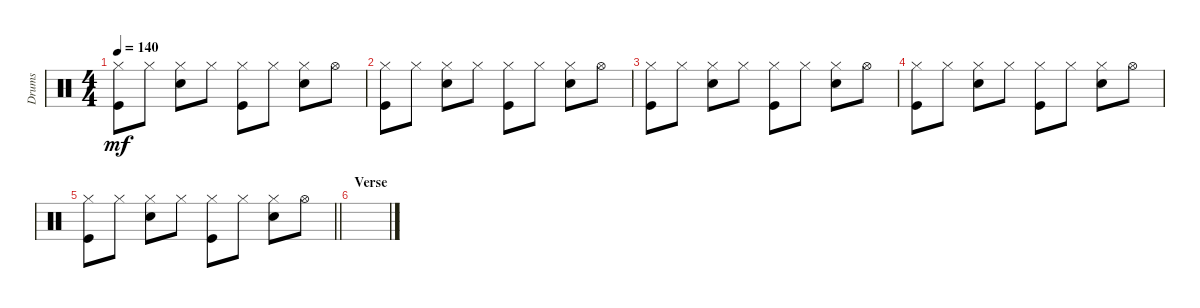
\track ("Drums" "Drums") {instrument percussion bank 255}
\staff {score}
\articulation defaults
\ts (4 4)
\tempo 140
\clef neutral
\ks c
("Hi-Hat (closed)" "Kick (hit)").8{dy mf} "Hi-Hat (closed)".8 ("Hi-Hat (closed)" "Snare (hit) 2").8 "Hi-Hat (closed)".8 ("Hi-Hat (closed)" "Kick (hit)").8 "Hi-Hat (closed)".8 ("Hi-Hat (closed)" "Snare (hit) 2").8 "Hi-Hat (open)".8 |
("Hi-Hat (closed)" "Kick (hit)").8 "Hi-Hat (closed)".8 ("Hi-Hat (closed)" "Snare (hit) 2").8 "Hi-Hat (closed)".8 ("Hi-Hat (closed)" "Kick (hit)").8 "Hi-Hat (closed)".8 ("Hi-Hat (closed)" "Snare (hit) 2").8 "Hi-Hat (open)".8 |
("Hi-Hat (closed)" "Kick (hit)").8 "Hi-Hat (closed)".8 ("Hi-Hat (closed)" "Snare (hit) 2").8 "Hi-Hat (closed)".8 ("Hi-Hat (closed)" "Kick (hit)").8 "Hi-Hat (closed)".8 ("Hi-Hat (closed)" "Snare (hit) 2").8 "Hi-Hat (open)".8 |
("Hi-Hat (closed)" "Kick (hit)").8 "Hi-Hat (closed)".8 ("Hi-Hat (closed)" "Snare (hit) 2").8 "Hi-Hat (closed)".8 ("Hi-Hat (closed)" "Kick (hit)").8 "Hi-Hat (closed)".8 ("Hi-Hat (closed)" "Snare (hit) 2").8 "Hi-Hat (open)".8 |
\barLineRight lightlight
("Hi-Hat (closed)" "Kick (hit)").8 "Hi-Hat (closed)".8 ("Hi-Hat (closed)" "Snare (hit) 2").8 "Hi-Hat (closed)".8 ("Hi-Hat (closed)" "Kick (hit)").8 "Hi-Hat (closed)".8 ("Hi-Hat (closed)" "Snare (hit) 2").8 "Hi-Hat (open)".8 |
\section ("" "Verse")
